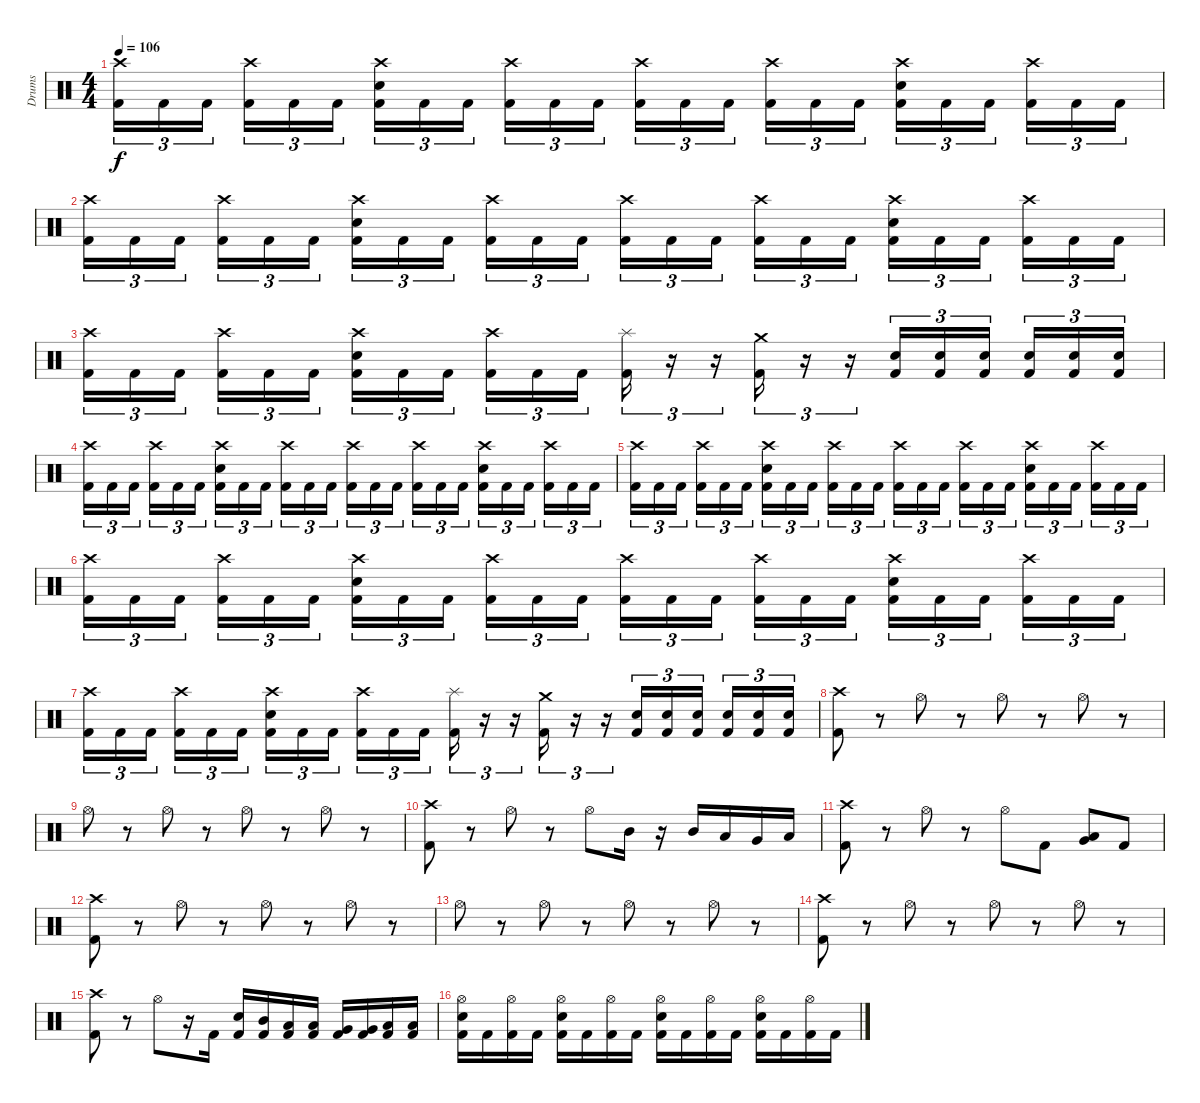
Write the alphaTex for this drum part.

\track ("Drums" "Drums") {instrument percussion}
\staff {score}
\articulation defaults
\ts (4 4)
\tempo 106
\clef neutral
\ks c
("Crash high (hit)" "Kick (hit) 2").16{tu (3 2) dy f} "Kick (hit) 2".16{tu (3 2)} "Kick (hit) 2".16{tu (3 2) beam splitsecondary} ("Crash high (hit)" "Kick (hit) 2").16{tu (3 2)} "Kick (hit) 2".16{tu (3 2)} "Kick (hit) 2".16{tu (3 2)} ("Crash high (hit)" "Electric Snare (hit)" "Kick (hit) 2").16{tu (3 2)} "Kick (hit) 2".16{tu (3 2)} "Kick (hit) 2".16{tu (3 2) beam splitsecondary} ("Crash high (hit)" "Kick (hit) 2").16{tu (3 2)} "Kick (hit) 2".16{tu (3 2)} "Kick (hit) 2".16{tu (3 2)} ("Crash high (hit)" "Kick (hit) 2").16{tu (3 2)} "Kick (hit) 2".16{tu (3 2)} "Kick (hit) 2".16{tu (3 2) beam splitsecondary} ("Crash high (hit)" "Kick (hit) 2").16{tu (3 2)} "Kick (hit) 2".16{tu (3 2)} "Kick (hit) 2".16{tu (3 2)} ("Crash high (hit)" "Electric Snare (hit)" "Kick (hit) 2").16{tu (3 2)} "Kick (hit) 2".16{tu (3 2)} "Kick (hit) 2".16{tu (3 2) beam splitsecondary} ("Crash high (hit)" "Kick (hit) 2").16{tu (3 2)} "Kick (hit) 2".16{tu (3 2)} "Kick (hit) 2".16{tu (3 2)} |
("Crash high (hit)" "Kick (hit) 2").16{tu (3 2)} "Kick (hit) 2".16{tu (3 2)} "Kick (hit) 2".16{tu (3 2) beam splitsecondary} ("Crash high (hit)" "Kick (hit) 2").16{tu (3 2)} "Kick (hit) 2".16{tu (3 2)} "Kick (hit) 2".16{tu (3 2)} ("Crash high (hit)" "Electric Snare (hit)" "Kick (hit) 2").16{tu (3 2)} "Kick (hit) 2".16{tu (3 2)} "Kick (hit) 2".16{tu (3 2) beam splitsecondary} ("Crash high (hit)" "Kick (hit) 2").16{tu (3 2)} "Kick (hit) 2".16{tu (3 2)} "Kick (hit) 2".16{tu (3 2)} ("Crash high (hit)" "Kick (hit) 2").16{tu (3 2)} "Kick (hit) 2".16{tu (3 2)} "Kick (hit) 2".16{tu (3 2) beam splitsecondary} ("Crash high (hit)" "Kick (hit) 2").16{tu (3 2)} "Kick (hit) 2".16{tu (3 2)} "Kick (hit) 2".16{tu (3 2)} ("Crash high (hit)" "Electric Snare (hit)" "Kick (hit) 2").16{tu (3 2)} "Kick (hit) 2".16{tu (3 2)} "Kick (hit) 2".16{tu (3 2) beam splitsecondary} ("Crash high (hit)" "Kick (hit) 2").16{tu (3 2)} "Kick (hit) 2".16{tu (3 2)} "Kick (hit) 2".16{tu (3 2)} |
("Crash high (hit)" "Kick (hit) 2").16{tu (3 2)} "Kick (hit) 2".16{tu (3 2)} "Kick (hit) 2".16{tu (3 2) beam splitsecondary} ("Crash high (hit)" "Kick (hit) 2").16{tu (3 2)} "Kick (hit) 2".16{tu (3 2)} "Kick (hit) 2".16{tu (3 2)} ("Crash high (hit)" "Electric Snare (hit)" "Kick (hit) 2").16{tu (3 2)} "Kick (hit) 2".16{tu (3 2)} "Kick (hit) 2".16{tu (3 2) beam splitsecondary} ("Crash high (hit)" "Kick (hit) 2").16{tu (3 2)} "Kick (hit) 2".16{tu (3 2)} "Kick (hit) 2".16{tu (3 2)} ("Splash (hit)" "Kick (hit) 2").16{tu (3 2)} r.16{tu (3 2)} r.16{tu (3 2)} ("Crash medium (hit)" "Kick (hit) 2").16{tu (3 2)} r.16{tu (3 2)} r.16{tu (3 2)} ("Electric Snare (hit)" "Kick (hit) 2").16{tu (3 2)} ("Electric Snare (hit)" "Kick (hit) 2").16{tu (3 2)} ("Electric Snare (hit)" "Kick (hit) 2").16{tu (3 2) beam splitsecondary} ("Electric Snare (hit)" "Kick (hit) 2").16{tu (3 2)} ("Electric Snare (hit)" "Kick (hit) 2").16{tu (3 2)} ("Electric Snare (hit)" "Kick (hit) 2").16{tu (3 2)} |
("Crash high (hit)" "Kick (hit) 2").16{tu (3 2)} "Kick (hit) 2".16{tu (3 2)} "Kick (hit) 2".16{tu (3 2) beam splitsecondary} ("Crash high (hit)" "Kick (hit) 2").16{tu (3 2)} "Kick (hit) 2".16{tu (3 2)} "Kick (hit) 2".16{tu (3 2)} ("Crash high (hit)" "Electric Snare (hit)" "Kick (hit) 2").16{tu (3 2)} "Kick (hit) 2".16{tu (3 2)} "Kick (hit) 2".16{tu (3 2) beam splitsecondary} ("Crash high (hit)" "Kick (hit) 2").16{tu (3 2)} "Kick (hit) 2".16{tu (3 2)} "Kick (hit) 2".16{tu (3 2)} ("Crash high (hit)" "Kick (hit) 2").16{tu (3 2)} "Kick (hit) 2".16{tu (3 2)} "Kick (hit) 2".16{tu (3 2) beam splitsecondary} ("Crash high (hit)" "Kick (hit) 2").16{tu (3 2)} "Kick (hit) 2".16{tu (3 2)} "Kick (hit) 2".16{tu (3 2)} ("Crash high (hit)" "Electric Snare (hit)" "Kick (hit) 2").16{tu (3 2)} "Kick (hit) 2".16{tu (3 2)} "Kick (hit) 2".16{tu (3 2) beam splitsecondary} ("Crash high (hit)" "Kick (hit) 2").16{tu (3 2)} "Kick (hit) 2".16{tu (3 2)} "Kick (hit) 2".16{tu (3 2)} |
("Crash high (hit)" "Kick (hit) 2").16{tu (3 2)} "Kick (hit) 2".16{tu (3 2)} "Kick (hit) 2".16{tu (3 2) beam splitsecondary} ("Crash high (hit)" "Kick (hit) 2").16{tu (3 2)} "Kick (hit) 2".16{tu (3 2)} "Kick (hit) 2".16{tu (3 2)} ("Crash high (hit)" "Electric Snare (hit)" "Kick (hit) 2").16{tu (3 2)} "Kick (hit) 2".16{tu (3 2)} "Kick (hit) 2".16{tu (3 2) beam splitsecondary} ("Crash high (hit)" "Kick (hit) 2").16{tu (3 2)} "Kick (hit) 2".16{tu (3 2)} "Kick (hit) 2".16{tu (3 2)} ("Crash high (hit)" "Kick (hit) 2").16{tu (3 2)} "Kick (hit) 2".16{tu (3 2)} "Kick (hit) 2".16{tu (3 2) beam splitsecondary} ("Crash high (hit)" "Kick (hit) 2").16{tu (3 2)} "Kick (hit) 2".16{tu (3 2)} "Kick (hit) 2".16{tu (3 2)} ("Crash high (hit)" "Electric Snare (hit)" "Kick (hit) 2").16{tu (3 2)} "Kick (hit) 2".16{tu (3 2)} "Kick (hit) 2".16{tu (3 2) beam splitsecondary} ("Crash high (hit)" "Kick (hit) 2").16{tu (3 2)} "Kick (hit) 2".16{tu (3 2)} "Kick (hit) 2".16{tu (3 2)} |
("Crash high (hit)" "Kick (hit) 2").16{tu (3 2)} "Kick (hit) 2".16{tu (3 2)} "Kick (hit) 2".16{tu (3 2) beam splitsecondary} ("Crash high (hit)" "Kick (hit) 2").16{tu (3 2)} "Kick (hit) 2".16{tu (3 2)} "Kick (hit) 2".16{tu (3 2)} ("Crash high (hit)" "Electric Snare (hit)" "Kick (hit) 2").16{tu (3 2)} "Kick (hit) 2".16{tu (3 2)} "Kick (hit) 2".16{tu (3 2) beam splitsecondary} ("Crash high (hit)" "Kick (hit) 2").16{tu (3 2)} "Kick (hit) 2".16{tu (3 2)} "Kick (hit) 2".16{tu (3 2)} ("Crash high (hit)" "Kick (hit) 2").16{tu (3 2)} "Kick (hit) 2".16{tu (3 2)} "Kick (hit) 2".16{tu (3 2) beam splitsecondary} ("Crash high (hit)" "Kick (hit) 2").16{tu (3 2)} "Kick (hit) 2".16{tu (3 2)} "Kick (hit) 2".16{tu (3 2)} ("Crash high (hit)" "Electric Snare (hit)" "Kick (hit) 2").16{tu (3 2)} "Kick (hit) 2".16{tu (3 2)} "Kick (hit) 2".16{tu (3 2) beam splitsecondary} ("Crash high (hit)" "Kick (hit) 2").16{tu (3 2)} "Kick (hit) 2".16{tu (3 2)} "Kick (hit) 2".16{tu (3 2)} |
("Crash high (hit)" "Kick (hit) 2").16{tu (3 2)} "Kick (hit) 2".16{tu (3 2)} "Kick (hit) 2".16{tu (3 2) beam splitsecondary} ("Crash high (hit)" "Kick (hit) 2").16{tu (3 2)} "Kick (hit) 2".16{tu (3 2)} "Kick (hit) 2".16{tu (3 2)} ("Crash high (hit)" "Electric Snare (hit)" "Kick (hit) 2").16{tu (3 2)} "Kick (hit) 2".16{tu (3 2)} "Kick (hit) 2".16{tu (3 2) beam splitsecondary} ("Crash high (hit)" "Kick (hit) 2").16{tu (3 2)} "Kick (hit) 2".16{tu (3 2)} "Kick (hit) 2".16{tu (3 2)} ("Splash (hit)" "Kick (hit) 2").16{tu (3 2)} r.16{tu (3 2)} r.16{tu (3 2)} ("Crash medium (hit)" "Kick (hit) 2").16{tu (3 2)} r.16{tu (3 2)} r.16{tu (3 2)} ("Electric Snare (hit)" "Kick (hit) 2").16{tu (3 2)} ("Electric Snare (hit)" "Kick (hit) 2").16{tu (3 2)} ("Electric Snare (hit)" "Kick (hit) 2").16{tu (3 2) beam splitsecondary} ("Electric Snare (hit)" "Kick (hit) 2").16{tu (3 2)} ("Electric Snare (hit)" "Kick (hit) 2").16{tu (3 2)} ("Electric Snare (hit)" "Kick (hit) 2").16{tu (3 2)} |
("Crash high (hit)" "Kick (hit) 2").8 r.8 "Hi-Hat (open)".8 r.8 "Hi-Hat (open)".8 r.8 "Hi-Hat (open)".8 r.8 |
"Hi-Hat (open)".8 r.8 "Hi-Hat (open)".8 r.8 "Hi-Hat (open)".8 r.8 "Hi-Hat (open)".8 r.8 |
("Crash high (hit)" "Kick (hit) 2").8 r.8 "Hi-Hat (open)".8 r.8 "Hi-Hat (open)".8 "Mid Tom (hit)".16 r.16 "Mid Tom (hit)".16 "Low Tom (hit)".16 "Very Low Tom (hit)".16 "Low Floor Tom (hit)".16 |
("Crash high (hit)" "Kick (hit) 2").8 r.8 "Hi-Hat (open)".8 r.8 "Hi-Hat (open)".8 "Kick (hit) 2".8 ("Low Floor Tom (hit)" "Very Low Tom (hit)").8 "Kick (hit) 2".8 |
("Crash high (hit)" "Kick (hit) 2").8 r.8 "Hi-Hat (open)".8 r.8 "Hi-Hat (open)".8 r.8 "Hi-Hat (open)".8 r.8 |
"Hi-Hat (open)".8 r.8 "Hi-Hat (open)".8 r.8 "Hi-Hat (open)".8 r.8 "Hi-Hat (open)".8 r.8 |
("Crash high (hit)" "Kick (hit) 2").8 r.8 "Hi-Hat (open)".8 r.8 "Hi-Hat (open)".8 r.8 "Hi-Hat (open)".8 r.8 |
("Crash high (hit)" "Kick (hit) 2").8 r.8 "Hi-Hat (open)".8 r.16 "Kick (hit) 2".16 ("Electric Snare (hit)" "Kick (hit) 2").16 ("Mid Tom (hit)" "Kick (hit) 2").16 ("Low Tom (hit)" "Kick (hit) 2").16 ("Low Tom (hit)" "Kick (hit) 2").16 ("Very Low Tom (hit)" "Kick (hit) 2").16 ("Very Low Tom (hit)" "Kick (hit) 2").16 ("Low Floor Tom (hit)" "Kick (hit) 2").16 ("Low Floor Tom (hit)" "Kick (hit) 2").16 |
("Hi-Hat (open)" "Electric Snare (hit)" "Kick (hit) 2").16 "Kick (hit) 2".16 ("Hi-Hat (open)" "Kick (hit) 2").16 "Kick (hit) 2".16 ("Hi-Hat (open)" "Electric Snare (hit)" "Kick (hit) 2").16 "Kick (hit) 2".16 ("Hi-Hat (open)" "Kick (hit) 2").16 "Kick (hit) 2".16 ("Hi-Hat (open)" "Electric Snare (hit)" "Kick (hit) 2").16 "Kick (hit) 2".16 ("Hi-Hat (open)" "Kick (hit) 2").16 "Kick (hit) 2".16 ("Hi-Hat (open)" "Electric Snare (hit)" "Kick (hit) 2").16 "Kick (hit) 2".16 ("Hi-Hat (open)" "Kick (hit) 2").16 "Kick (hit) 2".16
